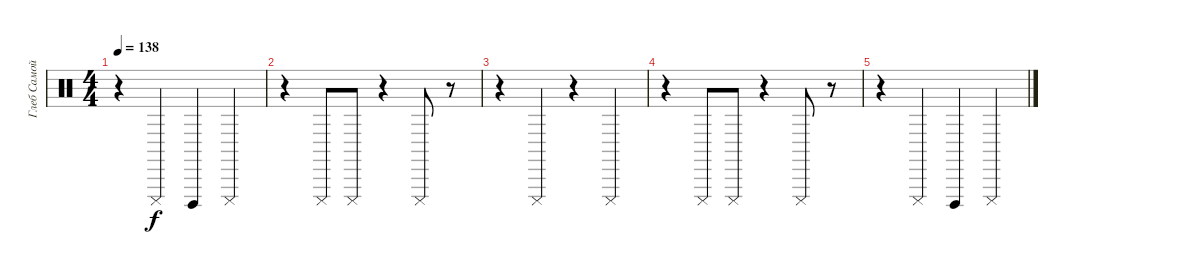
\track ("Глеб Самойлов (fx)" "Глеб Самой") {instrument percussion}
\staff {score}
\articulation defaults
\ts (4 4)
\tempo 138
\clef neutral
\ks c
r.4{dy f} "Cuica (mute)".4 "Cuica (open)".4 "Cuica (mute)".4 |
r.4 "Cuica (mute)".8 "Cuica (mute)".8 r.4 "Cuica (mute)".8 r.8 |
r.4 "Cuica (mute)".4 r.4 "Cuica (mute)".4 |
r.4 "Cuica (mute)".8 "Cuica (mute)".8 r.4 "Cuica (mute)".8 r.8 |
r.4 "Cuica (mute)".4 "Cuica (open)".4 "Cuica (mute)".4
